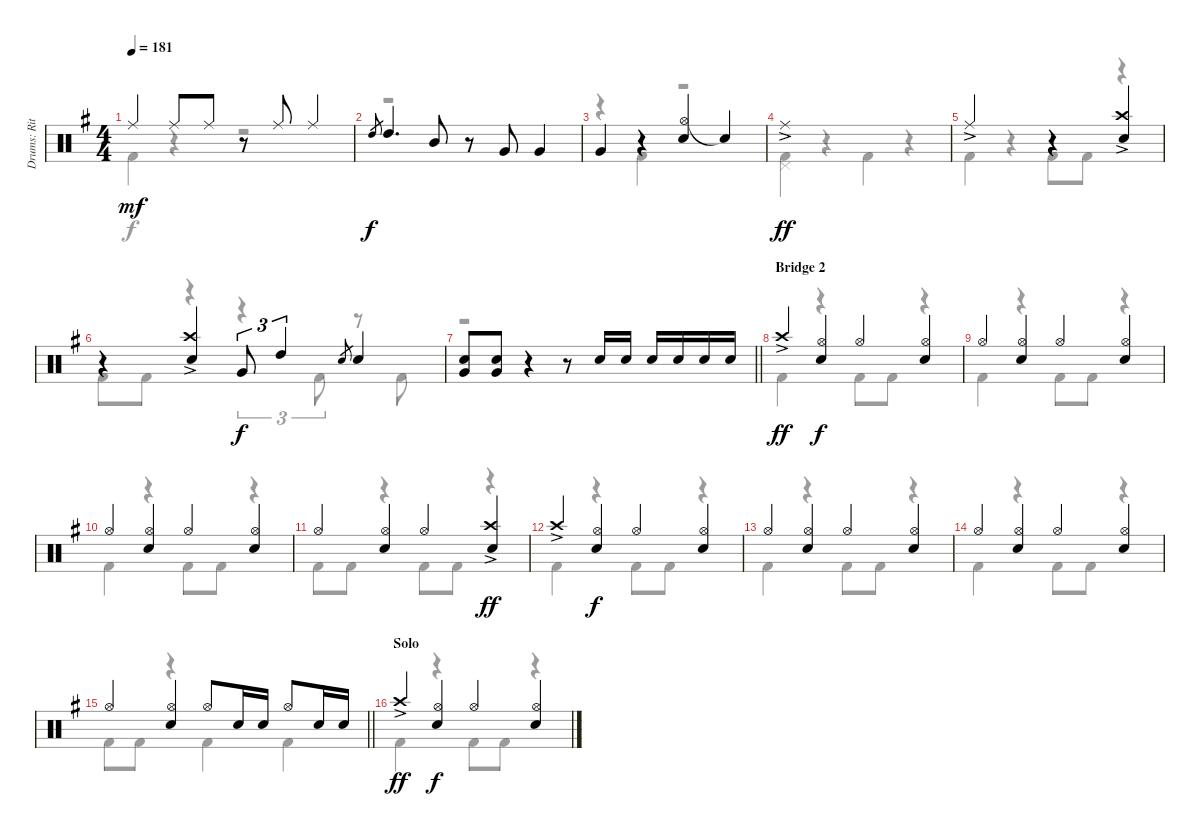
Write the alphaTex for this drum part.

\track ("Drums: Ritsu Tianaka" "Drums: Rit") {instrument percussion}
\staff {score}
\articulation defaults
\voice
\ts (4 4)
\tempo 181
\clef neutral
\ks g "Ride (middle)".4{dy mf} "Ride (middle)".8 "Ride (middle)".8
r.8 "Ride (middle)".8 "Ride (middle)".4 |
"High Tom (hit)".8{gr dy f} "High Tom (hit)".4{d} "Mid Tom (hit)".8 r.8 "Very Low Tom (hit)".8 "Very Low Tom (hit)".4 |
"Very Low Tom (hit)".4 r.4 ("Hi-Hat (open)" "Snare (hit) 2").4 "Snare (hit)"{t}.4 |
"Ride (middle)"{ac}.1{dy ff} |
"Ride (middle)"{ac}.2 r.4 ("Crash high (hit)"{ac} "Snare (hit) 2").4 |
r.4 ("Crash high (hit)"{ac} "Snare (hit) 2").4 "Very Low Tom (hit)".8{tu (3 2) dy f} "High Tom (hit)".4{tu (3 2)} "Snare (hit) 2".8{gr} "Snare (hit) 2".4 |
\barLineRight lightlight
("Snare (hit) 2" "Very Low Tom (hit)").8 ("Snare (hit) 2" "Very Low Tom (hit)").8 r.4 r.8 "Snare (hit) 2".16 "Snare (hit) 2".16 "Snare (hit) 2".16 "Snare (hit) 2".16 "Snare (hit) 2".16 "Snare (hit) 2".16 |
\section ("" "Bridge 2")
"Crash high (hit)"{ac}.4{dy ff} ("Hi-Hat (open)" "Snare (hit) 2").4{dy f} "Hi-Hat (open)".4 ("Hi-Hat (open)" "Snare (hit) 2").4 |
"Hi-Hat (open)".4 ("Hi-Hat (open)" "Snare (hit) 2").4 "Hi-Hat (open)".4 ("Hi-Hat (open)" "Snare (hit) 2").4 |
"Hi-Hat (open)".4 ("Hi-Hat (open)" "Snare (hit) 2").4 "Hi-Hat (open)".4 ("Hi-Hat (open)" "Snare (hit) 2").4 |
"Hi-Hat (open)".4 ("Hi-Hat (open)" "Snare (hit) 2").4 "Hi-Hat (open)".4 ("Crash high (hit)"{ac} "Snare (hit) 2").4{dy ff} |
"Crash high (hit)"{ac}.4 ("Hi-Hat (open)" "Snare (hit) 2").4{dy f} "Hi-Hat (open)".4 ("Hi-Hat (open)" "Snare (hit) 2").4 |
"Hi-Hat (open)".4 ("Hi-Hat (open)" "Snare (hit) 2").4 "Hi-Hat (open)".4 ("Hi-Hat (open)" "Snare (hit) 2").4 |
"Hi-Hat (open)".4 ("Hi-Hat (open)" "Snare (hit) 2").4 "Hi-Hat (open)".4 ("Hi-Hat (open)" "Snare (hit) 2").4 |
\barLineRight lightlight "Hi-Hat (open)".4
("Hi-Hat (open)" "Snare (hit) 2").4 "Hi-Hat (open)".8 "Snare (hit) 2".16 "Snare (hit) 2".16 "Hi-Hat (open)".8 "Snare (hit) 2".16 "Snare (hit) 2".16 |
\section ("" "Solo")
"Crash high (hit)"{ac}.4{dy ff} ("Hi-Hat (open)" "Snare (hit) 2").4{dy f} "Hi-Hat (open)".4 ("Hi-Hat (open)" "Snare (hit) 2").4
\voice
\clef neutral
\ottava regular
\simile none
\ks g "Kick (hit) 2".4{dy f}
r.4 r.2 |
r.1 |
r.4 "Kick (hit) 2".4 r.2 |
("Pedal Hi-Hat (hit)" "Kick (hit) 2").4 r.4 "Kick (hit) 2".4 r.4 |
"Kick (hit) 2".4 r.4 "Kick (hit) 2".8 "Kick (hit) 2".8 r.4 |
"Kick (hit) 2".8 "Kick (hit) 2".8 r.4 r.4{tu (3 2)} "Kick (hit) 2".8{tu (3 2)} r.8 "Kick (hit) 2".8 |
\barLineRight lightlight
r.1 |
"Kick (hit) 2".4 r.4 "Kick (hit) 2".8 "Kick (hit) 2".8 r.4 |
"Kick (hit) 2".4 r.4 "Kick (hit) 2".8 "Kick (hit) 2".8 r.4 |
"Kick (hit) 2".4 r.4 "Kick (hit) 2".8 "Kick (hit) 2".8 r.4 |
"Kick (hit) 2".8 "Kick (hit) 2".8 r.4 "Kick (hit) 2".8 "Kick (hit) 2".8 r.4 |
"Kick (hit) 2".4 r.4 "Kick (hit) 2".8 "Kick (hit) 2".8 r.4 |
"Kick (hit) 2".4 r.4 "Kick (hit) 2".8 "Kick (hit) 2".8 r.4 |
"Kick (hit) 2".4 r.4 "Kick (hit) 2".8 "Kick (hit) 2".8 r.4 |
\barLineRight lightlight "Kick (hit) 2".8 "Kick (hit) 2".8
r.4 "Kick (hit) 2".4 "Kick (hit) 2".4 |
"Kick (hit) 2".4 r.4 "Kick (hit) 2".8 "Kick (hit) 2".8 r.4
